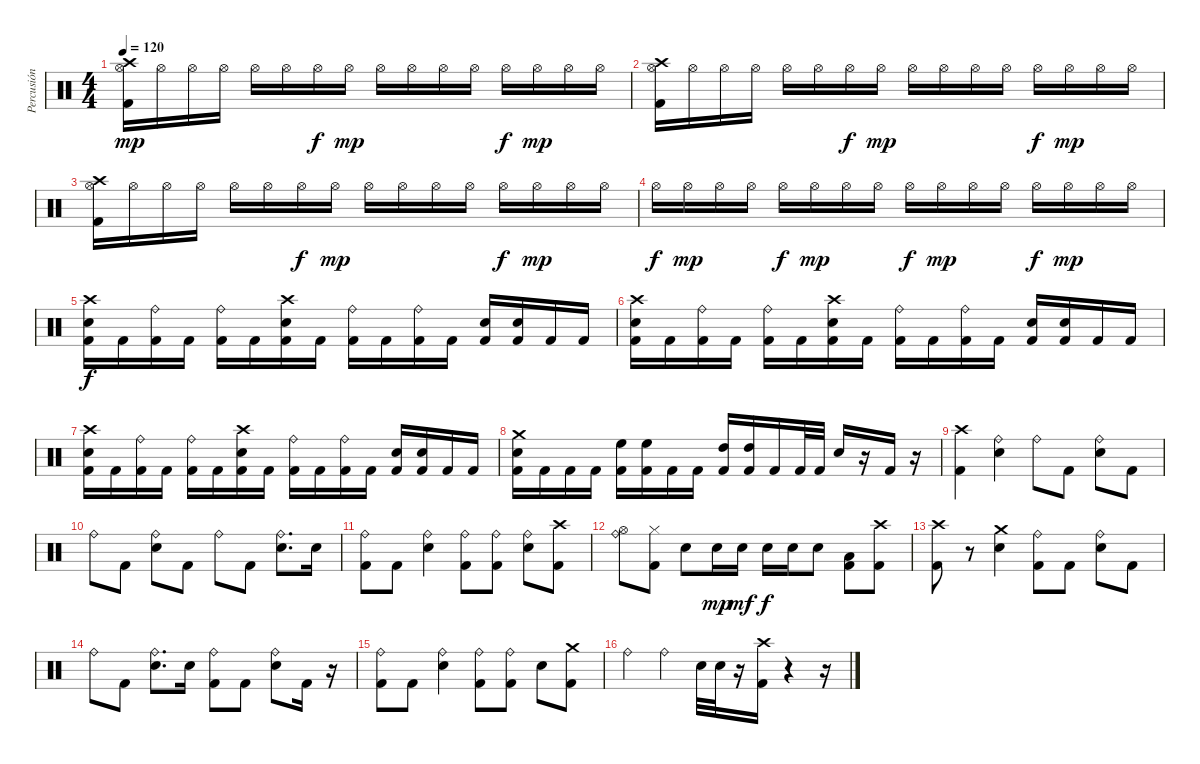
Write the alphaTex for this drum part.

\track ("Percusión" "Percusión") {instrument percussion}
\staff {score}
\articulation defaults
\ts (4 4)
\tempo 120
\clef neutral
\ks c
("Crash high (hit)" "Kick (hit) 2" "Hi-Hat (open)").16{dy mp} "Hi-Hat (open)".16 "Hi-Hat (open)".16 "Hi-Hat (open)".16 "Hi-Hat (open)".16 "Hi-Hat (open)".16 "Hi-Hat (open)".16{dy f} "Hi-Hat (open)".16{dy mp} "Hi-Hat (open)".16 "Hi-Hat (open)".16 "Hi-Hat (open)".16 "Hi-Hat (open)".16 "Hi-Hat (open)".16{dy f} "Hi-Hat (open)".16{dy mp} "Hi-Hat (open)".16 "Hi-Hat (open)".16 |
("Crash high (hit)" "Kick (hit) 2" "Hi-Hat (open)").16 "Hi-Hat (open)".16 "Hi-Hat (open)".16 "Hi-Hat (open)".16 "Hi-Hat (open)".16 "Hi-Hat (open)".16 "Hi-Hat (open)".16{dy f} "Hi-Hat (open)".16{dy mp} "Hi-Hat (open)".16 "Hi-Hat (open)".16 "Hi-Hat (open)".16 "Hi-Hat (open)".16 "Hi-Hat (open)".16{dy f} "Hi-Hat (open)".16{dy mp} "Hi-Hat (open)".16 "Hi-Hat (open)".16 |
("Hi-Hat (open)" "Crash high (hit)" "Kick (hit) 2").16 "Hi-Hat (open)".16 "Hi-Hat (open)".16 "Hi-Hat (open)".16 "Hi-Hat (open)".16 "Hi-Hat (open)".16 "Hi-Hat (open)".16{dy f} "Hi-Hat (open)".16{dy mp} "Hi-Hat (open)".16 "Hi-Hat (open)".16 "Hi-Hat (open)".16 "Hi-Hat (open)".16 "Hi-Hat (open)".16{dy f} "Hi-Hat (open)".16{dy mp} "Hi-Hat (open)".16 "Hi-Hat (open)".16 |
"Hi-Hat (open)".16{dy f} "Hi-Hat (open)".16{dy mp} "Hi-Hat (open)".16 "Hi-Hat (open)".16 "Hi-Hat (open)".16{dy f} "Hi-Hat (open)".16{dy mp} "Hi-Hat (open)".16 "Hi-Hat (open)".16 "Hi-Hat (open)".16{dy f} "Hi-Hat (open)".16{dy mp} "Hi-Hat (open)".16 "Hi-Hat (open)".16 "Hi-Hat (open)".16{dy f} "Hi-Hat (open)".16{dy mp} "Hi-Hat (open)".16 "Hi-Hat (open)".16 |
("Kick (hit) 2" "Electric Snare (hit)" "Crash high (hit)").16{dy f} "Kick (hit) 2".16 ("Kick (hit) 2" "Ride (bell)").16 "Kick (hit) 2".16 ("Kick (hit) 2" "Ride (bell)").16 "Kick (hit) 2".16 ("Kick (hit) 2" "Electric Snare (hit)" "Crash high (hit)").16 "Kick (hit) 2".16 ("Kick (hit) 2" "Ride (bell)").16 "Kick (hit) 2".16 ("Kick (hit) 2" "Ride (bell)").16 "Kick (hit) 2".16 ("Kick (hit) 2" "Electric Snare (hit)").16 ("Kick (hit) 2" "Electric Snare (hit)").16 "Kick (hit) 2".16 "Kick (hit) 2".16 |
("Kick (hit) 2" "Electric Snare (hit)" "Crash high (hit)").16 "Kick (hit) 2".16 ("Kick (hit) 2" "Ride (bell)").16 "Kick (hit) 2".16 ("Kick (hit) 2" "Ride (bell)").16 "Kick (hit) 2".16 ("Kick (hit) 2" "Electric Snare (hit)" "Crash high (hit)").16 "Kick (hit) 2".16 ("Kick (hit) 2" "Ride (bell)").16 "Kick (hit) 2".16 ("Kick (hit) 2" "Ride (bell)").16 "Kick (hit) 2".16 ("Kick (hit) 2" "Electric Snare (hit)").16 ("Kick (hit) 2" "Electric Snare (hit)").16 "Kick (hit) 2".16 "Kick (hit) 2".16 |
("Kick (hit) 2" "Electric Snare (hit)" "Crash high (hit)").16 "Kick (hit) 2".16 ("Kick (hit) 2" "Ride (bell)").16 "Kick (hit) 2".16 ("Kick (hit) 2" "Ride (bell)").16 "Kick (hit) 2".16 ("Kick (hit) 2" "Electric Snare (hit)" "Crash high (hit)").16 "Kick (hit) 2".16 ("Kick (hit) 2" "Ride (bell)").16 "Kick (hit) 2".16 ("Kick (hit) 2" "Ride (bell)").16 "Kick (hit) 2".16 ("Kick (hit) 2" "Electric Snare (hit)").16 ("Kick (hit) 2" "Electric Snare (hit)").16 "Kick (hit) 2".16 "Kick (hit) 2".16 |
("Kick (hit) 2" "Electric Snare (hit)" "Crash medium (hit)").16 "Kick (hit) 2".16 "Kick (hit) 2".16 "Kick (hit) 2".16 ("Kick (hit) 2" "High Floor Tom (hit)").16 ("Kick (hit) 2" "High Floor Tom (hit)").16 "Kick (hit) 2".16 "Kick (hit) 2".16 ("Kick (hit) 2" "High Tom (hit)").16 ("Kick (hit) 2" "High Tom (hit)").16 "Kick (hit) 2".16 "Kick (hit) 2".32 "Kick (hit) 2".32 "Electric Snare (hit)".16 r.16 "Kick (hit) 2".16 r.16 |
("Kick (hit) 2" "Crash high (hit)").4 ("Electric Snare (hit)" "Ride (bell)").4 "Ride (bell)".8 "Kick (hit) 2".8 ("Electric Snare (hit)" "Ride (bell)").8 "Kick (hit) 2".8 |
"Ride (bell)".8 "Kick (hit) 2".8 ("Electric Snare (hit)" "Ride (bell)").8 "Kick (hit) 2".8 "Ride (bell)".8 "Kick (hit) 2".8 ("Electric Snare (hit)" "Ride (bell)").8{d} "Electric Snare (hit)".16 |
("Kick (hit) 2" "Ride (bell)").8 "Kick (hit) 2".8 ("Electric Snare (hit)" "Ride (bell)").4 ("Kick (hit) 2" "Ride (bell)").8 ("Kick (hit) 2" "Ride (bell)").8 ("Ride (bell)" "Electric Snare (hit)").8 ("Crash high (hit)" "Kick (hit) 2").8 |
("Ride (bell)" "Hi-Hat (open)").8 ("Kick (hit) 2" "Hi-Hat (closed)").8 "Electric Snare (hit)".8 "Electric Snare (hit)".16{dy mp} "Electric Snare (hit)".16{dy mf} "Electric Snare (hit)".16{dy f} "Electric Snare (hit)".16 "Electric Snare (hit)".8 ("Kick (hit) 2" "Low Tom (hit)").8 ("Kick (hit) 2" "Crash high (hit)").8 |
("Kick (hit) 2" "Crash high (hit)").8 r.8 ("Electric Snare (hit)" "Crash medium (hit)").4 ("Ride (bell)" "Kick (hit) 2").8 "Kick (hit) 2".8 ("Electric Snare (hit)" "Ride (bell)").8 "Kick (hit) 2".8 |
"Ride (bell)".8 "Kick (hit) 2".8 ("Electric Snare (hit)" "Ride (bell)").8{d} "Electric Snare (hit)".16 ("Ride (bell)" "Kick (hit) 2").8 "Kick (hit) 2".8 ("Electric Snare (hit)" "Ride (bell)").8 "Kick (hit) 2".16 r.16 |
("Kick (hit) 2" "Ride (bell)").8 "Kick (hit) 2".8 ("Electric Snare (hit)" "Ride (bell)").4 ("Kick (hit) 2" "Ride (bell)").8 ("Kick (hit) 2" "Ride (bell)").8 "Electric Snare (hit)".8 ("Kick (hit) 2" "Crash medium (hit)").8 |
"Ride (bell)".4 "Ride (bell)".4 "Electric Snare (hit)".32 "Electric Snare (hit)".32 r.16 ("Kick (hit) 2" "Crash high (hit)").16 r.4 r.16
